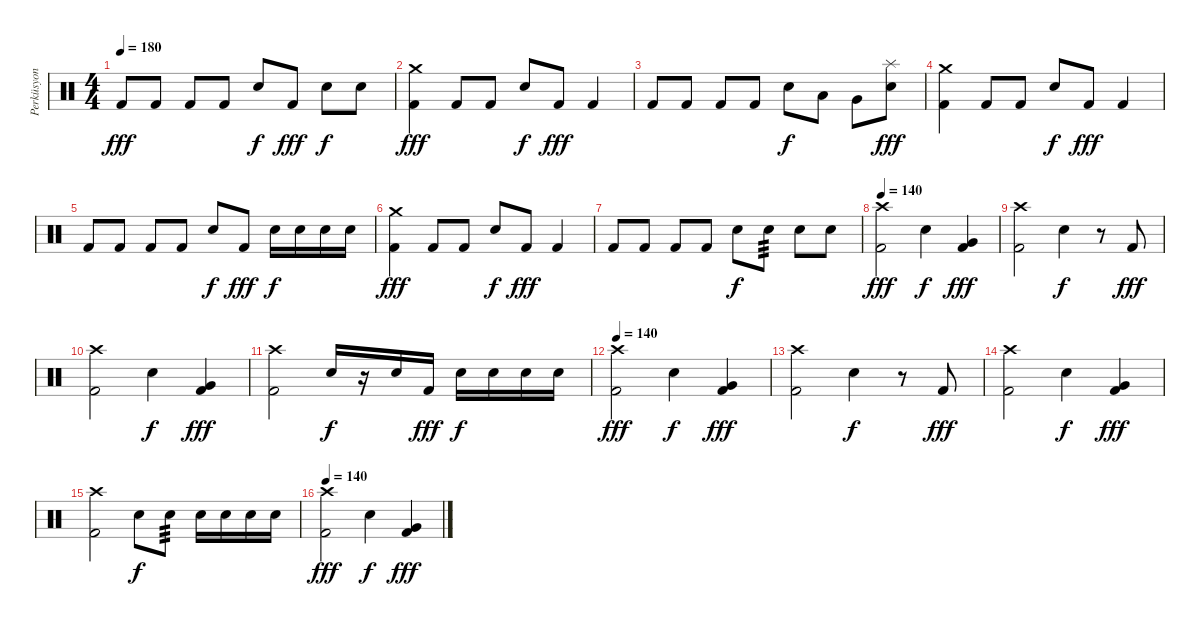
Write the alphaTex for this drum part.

\track ("Perküsyon" "Perküsyon") {instrument percussion}
\staff {score}
\articulation defaults
\ts (4 4)
\tempo 180
\clef neutral
\ks c "Kick (hit) 2".8{dy fff} "Kick (hit) 2".8 "Kick (hit) 2".8 "Kick (hit) 2".8 "Electric Snare (hit)".8{dy f} "Kick (hit) 2".8{dy fff} "Electric Snare (hit)".8{dy f} "Electric Snare (hit)".8
|
("Crash medium (hit)" "Kick (hit) 2").4{dy fff} "Kick (hit) 2".8 "Kick (hit) 2".8 "Electric Snare (hit)".8{dy f} "Kick (hit) 2".8{dy fff} "Kick (hit) 2".4 |
"Kick (hit) 2".8 "Kick (hit) 2".8 "Kick (hit) 2".8 "Kick (hit) 2".8 "Electric Snare (hit)".8{dy f} "Low Tom (hit)".8 "Very Low Tom (hit)".8 ("Splash (hit)" "Electric Snare (hit)").8{dy fff} |
("Crash medium (hit)" "Kick (hit) 2").4 "Kick (hit) 2".8 "Kick (hit) 2".8 "Electric Snare (hit)".8{dy f} "Kick (hit) 2".8{dy fff} "Kick (hit) 2".4 |
"Kick (hit) 2".8 "Kick (hit) 2".8 "Kick (hit) 2".8 "Kick (hit) 2".8 "Electric Snare (hit)".8{dy f} "Kick (hit) 2".8{dy fff} "Electric Snare (hit)".16{dy f} "Electric Snare (hit)".16 "Electric Snare (hit)".16 "Electric Snare (hit)".16 |
("Crash medium (hit)" "Kick (hit) 2").4{dy fff} "Kick (hit) 2".8 "Kick (hit) 2".8 "Electric Snare (hit)".8{dy f} "Kick (hit) 2".8{dy fff} "Kick (hit) 2".4 |
"Kick (hit) 2".8 "Kick (hit) 2".8 "Kick (hit) 2".8 "Kick (hit) 2".8 "Electric Snare (hit)".8{dy f} "Electric Snare (hit)".8{tp 3} "Electric Snare (hit)".8 "Electric Snare (hit)".8 |
\tempo 140
("Crash high (hit)" "Kick (hit) 2").2{dy fff} "Electric Snare (hit)".4{dy f} ("Very Low Tom (hit)" "Kick (hit) 2").4{dy fff} |
("Crash high (hit)" "Kick (hit) 2").2 "Electric Snare (hit)".4{dy f} r.8 "Kick (hit) 2".8{dy fff} |
("Crash high (hit)" "Kick (hit) 2").2 "Electric Snare (hit)".4{dy f} ("Very Low Tom (hit)" "Kick (hit) 2").4{dy fff} |
("Crash high (hit)" "Kick (hit) 2").2 "Electric Snare (hit)".16{dy f} r.16 "Electric Snare (hit)".16 "Kick (hit) 2".16{dy fff} "Electric Snare (hit)".16{dy f} "Electric Snare (hit)".16 "Electric Snare (hit)".16 "Electric Snare (hit)".16 |
\tempo 140
("Crash high (hit)" "Kick (hit) 2").2{dy fff} "Electric Snare (hit)".4{dy f} ("Very Low Tom (hit)" "Kick (hit) 2").4{dy fff} |
("Crash high (hit)" "Kick (hit) 2").2 "Electric Snare (hit)".4{dy f} r.8 "Kick (hit) 2".8{dy fff} |
("Crash high (hit)" "Kick (hit) 2").2 "Electric Snare (hit)".4{dy f} ("Very Low Tom (hit)" "Kick (hit) 2").4{dy fff} |
("Crash high (hit)" "Kick (hit) 2").2 "Electric Snare (hit)".8{dy f} "Electric Snare (hit)".8{tp 3} "Electric Snare (hit)".16 "Electric Snare (hit)".16 "Electric Snare (hit)".16 "Electric Snare (hit)".16 |
\tempo 140
("Crash high (hit)" "Kick (hit) 2").2{dy fff} "Electric Snare (hit)".4{dy f} ("Very Low Tom (hit)" "Kick (hit) 2").4{dy fff}
